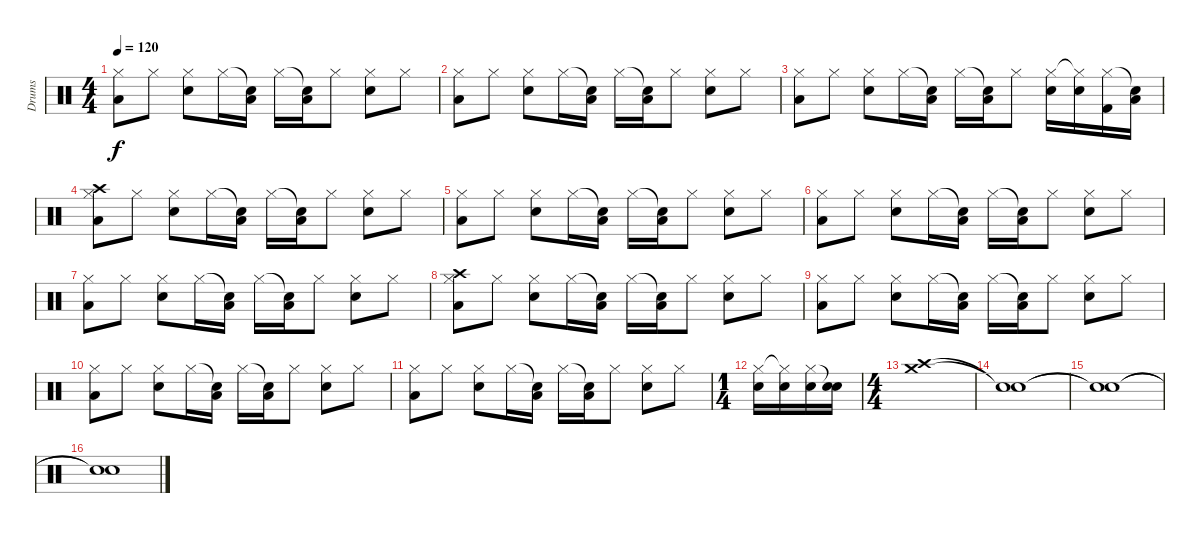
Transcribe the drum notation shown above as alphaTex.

\track ("Drums" "Drums") {instrument percussion}
\staff {score}
\articulation defaults
\ts (4 4)
\tempo 120
\clef neutral
\ks c
("Hi-Hat (closed)" "Low Tom (hit)").8{dy f} "Hi-Hat (closed)".8 ("Hi-Hat (closed)" "Snare (hit) 2").8 "Hi-Hat (closed)".16 ("Snare (hit)"{t} "Low Tom (hit)").16 "Hi-Hat (closed)".16 ("Snare (hit)"{t} "Low Tom (hit)").16 "Hi-Hat (closed)".8 ("Hi-Hat (closed)" "Snare (hit) 2").8 "Hi-Hat (closed)".8 |
("Hi-Hat (closed)" "Low Tom (hit)").8 "Hi-Hat (closed)".8 ("Hi-Hat (closed)" "Snare (hit) 2").8 "Hi-Hat (closed)".16 ("Snare (hit)"{t} "Low Tom (hit)").16 "Hi-Hat (closed)".16 ("Snare (hit)"{t} "Low Tom (hit)").16 "Hi-Hat (closed)".8 ("Hi-Hat (closed)" "Snare (hit) 2").8 "Hi-Hat (closed)".8 |
("Hi-Hat (closed)" "Low Tom (hit)").8 "Hi-Hat (closed)".8 ("Hi-Hat (closed)" "Snare (hit) 2").8 "Hi-Hat (closed)".16 ("Snare (hit)"{t} "Low Tom (hit)").16 "Hi-Hat (closed)".16 ("Snare (hit)"{t} "Low Tom (hit)").16 "Hi-Hat (closed)".8 ("Hi-Hat (closed)" "Snare (hit) 2").16 ("Hi-Hat (closed)"{t} "Snare (hit) 2").16 ("Hi-Hat (closed)" "Kick (hit) 2").16 ("Snare (hit)"{t} "Low Tom (hit)").16 |
("Hi-Hat (closed)" "Low Tom (hit)" "Crash high (hit)").8 "Hi-Hat (closed)".8 ("Hi-Hat (closed)" "Snare (hit) 2").8 "Hi-Hat (closed)".16 ("Snare (hit)"{t} "Low Tom (hit)").16 "Hi-Hat (closed)".16 ("Snare (hit)"{t} "Low Tom (hit)").16 "Hi-Hat (closed)".8 ("Hi-Hat (closed)" "Snare (hit) 2").8 "Hi-Hat (closed)".8 |
("Hi-Hat (closed)" "Low Tom (hit)").8 "Hi-Hat (closed)".8 ("Hi-Hat (closed)" "Snare (hit) 2").8 "Hi-Hat (closed)".16 ("Snare (hit)"{t} "Low Tom (hit)").16 "Hi-Hat (closed)".16 ("Snare (hit)"{t} "Low Tom (hit)").16 "Hi-Hat (closed)".8 ("Hi-Hat (closed)" "Snare (hit) 2").8 "Hi-Hat (closed)".8 |
("Hi-Hat (closed)" "Low Tom (hit)").8 "Hi-Hat (closed)".8 ("Hi-Hat (closed)" "Snare (hit) 2").8 "Hi-Hat (closed)".16 ("Snare (hit)"{t} "Low Tom (hit)").16 "Hi-Hat (closed)".16 ("Snare (hit)"{t} "Low Tom (hit)").16 "Hi-Hat (closed)".8 ("Hi-Hat (closed)" "Snare (hit) 2").8 "Hi-Hat (closed)".8 |
("Hi-Hat (closed)" "Low Tom (hit)").8 "Hi-Hat (closed)".8 ("Hi-Hat (closed)" "Snare (hit) 2").8 "Hi-Hat (closed)".16 ("Snare (hit)"{t} "Low Tom (hit)").16 "Hi-Hat (closed)".16 ("Snare (hit)"{t} "Low Tom (hit)").16 "Hi-Hat (closed)".8 ("Hi-Hat (closed)" "Snare (hit) 2").8 "Hi-Hat (closed)".8 |
("Hi-Hat (closed)" "Low Tom (hit)" "Crash high (hit)").8 "Hi-Hat (closed)".8 ("Hi-Hat (closed)" "Snare (hit) 2").8 "Hi-Hat (closed)".16 ("Snare (hit)"{t} "Low Tom (hit)").16 "Hi-Hat (closed)".16 ("Snare (hit)"{t} "Low Tom (hit)").16 "Hi-Hat (closed)".8 ("Hi-Hat (closed)" "Snare (hit) 2").8 "Hi-Hat (closed)".8 |
("Hi-Hat (closed)" "Low Tom (hit)").8 "Hi-Hat (closed)".8 ("Hi-Hat (closed)" "Snare (hit) 2").8 "Hi-Hat (closed)".16 ("Snare (hit)"{t} "Low Tom (hit)").16 "Hi-Hat (closed)".16 ("Snare (hit)"{t} "Low Tom (hit)").16 "Hi-Hat (closed)".8 ("Hi-Hat (closed)" "Snare (hit) 2").8 "Hi-Hat (closed)".8 |
("Hi-Hat (closed)" "Low Tom (hit)").8 "Hi-Hat (closed)".8 ("Hi-Hat (closed)" "Snare (hit) 2").8 "Hi-Hat (closed)".16 ("Snare (hit)"{t} "Low Tom (hit)").16 "Hi-Hat (closed)".16 ("Snare (hit)"{t} "Low Tom (hit)").16 "Hi-Hat (closed)".8 ("Hi-Hat (closed)" "Snare (hit) 2").8 "Hi-Hat (closed)".8 |
("Hi-Hat (closed)" "Low Tom (hit)").8 "Hi-Hat (closed)".8 ("Hi-Hat (closed)" "Snare (hit) 2").8 "Hi-Hat (closed)".16 ("Snare (hit)"{t} "Low Tom (hit)").16 "Hi-Hat (closed)".16 ("Snare (hit)"{t} "Low Tom (hit)").16 "Hi-Hat (closed)".8 ("Hi-Hat (closed)" "Snare (hit) 2").8 "Hi-Hat (closed)".8 |
\ts (1 4)
("Hi-Hat (closed)" "Snare (hit) 2").16 ("Hi-Hat (closed)"{t} "Snare (hit) 2").16 ("Hi-Hat (closed)" "Snare (hit) 2").16 ("Snare (hit)"{t} "Snare (hit) 2").16 |
\ts (4 4)
("Crash medium (hit)" "Crash high (hit)").1 |
("Snare (hit)"{t} "Snare (hit)"{t}).1 |
("Snare (hit)"{t} "Snare (hit)"{t}).1 |
("Snare (hit)"{t} "Snare (hit)"{t}).1
